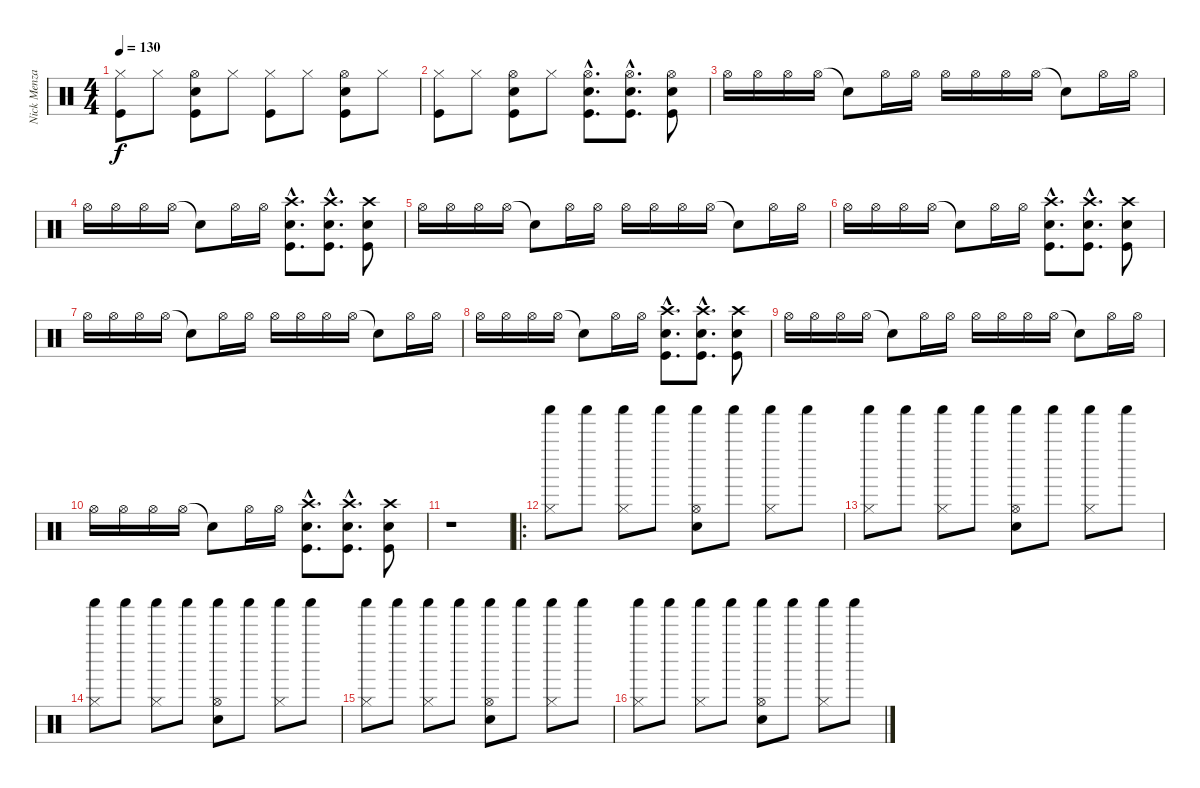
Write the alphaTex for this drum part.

\track ("Nick Menza" "Nick Menza") {instrument percussion}
\staff {score}
\articulation defaults
\ts (4 4)
\tempo 130
\clef neutral
\ks c
("Hi-Hat (closed)" "Kick (hit)").8{dy f} "Hi-Hat (closed)".8 ("Snare (hit) 2" "Hi-Hat (open)" "Kick (hit)").8 "Hi-Hat (closed)".8 ("Hi-Hat (closed)" "Kick (hit)").8 "Hi-Hat (closed)".8 ("Snare (hit) 2" "Hi-Hat (open)" "Kick (hit)").8 "Hi-Hat (closed)".8 |
("Hi-Hat (closed)" "Kick (hit)").8 "Hi-Hat (closed)".8 ("Snare (hit) 2" "Hi-Hat (open)" "Kick (hit)").8 "Hi-Hat (closed)".8 ("Snare (hit) 2"{hac} "Hi-Hat (open)"{hac} "Kick (hit)"{hac}).8{d} ("Snare (hit) 2"{hac} "Hi-Hat (open)"{hac} "Kick (hit)"{hac}).8{d} ("Snare (hit) 2" "Hi-Hat (open)" "Kick (hit)").8 |
"Hi-Hat (open)".16 "Hi-Hat (open)".16 "Hi-Hat (open)".16 "Hi-Hat (open)".16 "Snare (hit)"{t}.8 "Hi-Hat (open)".16 "Hi-Hat (open)".16 "Hi-Hat (open)".16 "Hi-Hat (open)".16 "Hi-Hat (open)".16 "Hi-Hat (open)".16 "Snare (hit)"{t}.8 "Hi-Hat (open)".16 "Hi-Hat (open)".16 |
"Hi-Hat (open)".16 "Hi-Hat (open)".16 "Hi-Hat (open)".16 "Hi-Hat (open)".16 "Snare (hit)"{t}.8 "Hi-Hat (open)".16 "Hi-Hat (open)".16 ("Crash high (hit)"{hac} "Snare (hit) 2"{hac} "Kick (hit)"{hac}).8{d} ("Crash high (hit)"{hac} "Snare (hit) 2"{hac} "Kick (hit)"{hac}).8{d} ("Crash high (hit)" "Snare (hit) 2" "Kick (hit)").8 |
"Hi-Hat (open)".16 "Hi-Hat (open)".16 "Hi-Hat (open)".16 "Hi-Hat (open)".16 "Snare (hit)"{t}.8 "Hi-Hat (open)".16 "Hi-Hat (open)".16 "Hi-Hat (open)".16 "Hi-Hat (open)".16 "Hi-Hat (open)".16 "Hi-Hat (open)".16 "Snare (hit)"{t}.8 "Hi-Hat (open)".16 "Hi-Hat (open)".16 |
"Hi-Hat (open)".16 "Hi-Hat (open)".16 "Hi-Hat (open)".16 "Hi-Hat (open)".16 "Snare (hit)"{t}.8 "Hi-Hat (open)".16 "Hi-Hat (open)".16 ("Crash high (hit)"{hac} "Snare (hit) 2"{hac} "Kick (hit)"{hac}).8{d} ("Crash high (hit)"{hac} "Snare (hit) 2"{hac} "Kick (hit)"{hac}).8{d} ("Crash high (hit)" "Snare (hit) 2" "Kick (hit)").8 |
"Hi-Hat (open)".16 "Hi-Hat (open)".16 "Hi-Hat (open)".16 "Hi-Hat (open)".16 "Snare (hit)"{t}.8 "Hi-Hat (open)".16 "Hi-Hat (open)".16 "Hi-Hat (open)".16 "Hi-Hat (open)".16 "Hi-Hat (open)".16 "Hi-Hat (open)".16 "Snare (hit)"{t}.8 "Hi-Hat (open)".16 "Hi-Hat (open)".16 |
"Hi-Hat (open)".16 "Hi-Hat (open)".16 "Hi-Hat (open)".16 "Hi-Hat (open)".16 "Snare (hit)"{t}.8 "Hi-Hat (open)".16 "Hi-Hat (open)".16 ("Crash high (hit)"{hac} "Snare (hit) 2"{hac} "Kick (hit)"{hac}).8{d} ("Crash high (hit)"{hac} "Snare (hit) 2"{hac} "Kick (hit)"{hac}).8{d} ("Crash high (hit)" "Snare (hit) 2" "Kick (hit)").8 |
"Hi-Hat (open)".16 "Hi-Hat (open)".16 "Hi-Hat (open)".16 "Hi-Hat (open)".16 "Snare (hit)"{t}.8 "Hi-Hat (open)".16 "Hi-Hat (open)".16 "Hi-Hat (open)".16 "Hi-Hat (open)".16 "Hi-Hat (open)".16 "Hi-Hat (open)".16 "Snare (hit)"{t}.8 "Hi-Hat (open)".16 "Hi-Hat (open)".16 |
"Hi-Hat (open)".16 "Hi-Hat (open)".16 "Hi-Hat (open)".16 "Hi-Hat (open)".16 "Snare (hit)"{t}.8 "Hi-Hat (open)".16 "Hi-Hat (open)".16 ("Crash high (hit)"{hac} "Snare (hit) 2"{hac} "Kick (hit)"{hac}).8{d} ("Crash high (hit)"{hac} "Snare (hit) 2"{hac} "Kick (hit)"{hac}).8{d} ("Crash high (hit)" "Snare (hit) 2" "Kick (hit)").8 |
r.1 |
\ro
("Shaker (hit)" "Hi-Hat (closed)").8 "Shaker (hit)".8 ("Shaker (hit)" "Hi-Hat (closed)").8 "Shaker (hit)".8 ("Shaker (hit)" "Hi-Hat (open)" "Snare (hit) 2").8 "Shaker (hit)".8 ("Shaker (hit)" "Hi-Hat (closed)").8 "Shaker (hit)".8 |
("Shaker (hit)" "Hi-Hat (closed)").8 "Shaker (hit)".8 ("Shaker (hit)" "Hi-Hat (closed)").8 "Shaker (hit)".8 ("Shaker (hit)" "Hi-Hat (open)" "Snare (hit) 2").8 "Shaker (hit)".8 ("Shaker (hit)" "Hi-Hat (closed)").8 "Shaker (hit)".8 |
("Shaker (hit)" "Hi-Hat (closed)").8 "Shaker (hit)".8 ("Shaker (hit)" "Hi-Hat (closed)").8 "Shaker (hit)".8 ("Shaker (hit)" "Hi-Hat (open)" "Snare (hit) 2").8 "Shaker (hit)".8 ("Shaker (hit)" "Hi-Hat (closed)").8 "Shaker (hit)".8 |
("Shaker (hit)" "Hi-Hat (closed)").8 "Shaker (hit)".8 ("Shaker (hit)" "Hi-Hat (closed)").8 "Shaker (hit)".8 ("Shaker (hit)" "Hi-Hat (open)" "Snare (hit) 2").8 "Shaker (hit)".8 ("Shaker (hit)" "Hi-Hat (closed)").8 "Shaker (hit)".8 |
("Shaker (hit)" "Hi-Hat (closed)").8 "Shaker (hit)".8 ("Shaker (hit)" "Hi-Hat (closed)").8 "Shaker (hit)".8 ("Shaker (hit)" "Hi-Hat (open)" "Snare (hit) 2").8 "Shaker (hit)".8 ("Shaker (hit)" "Hi-Hat (closed)").8 "Shaker (hit)".8
